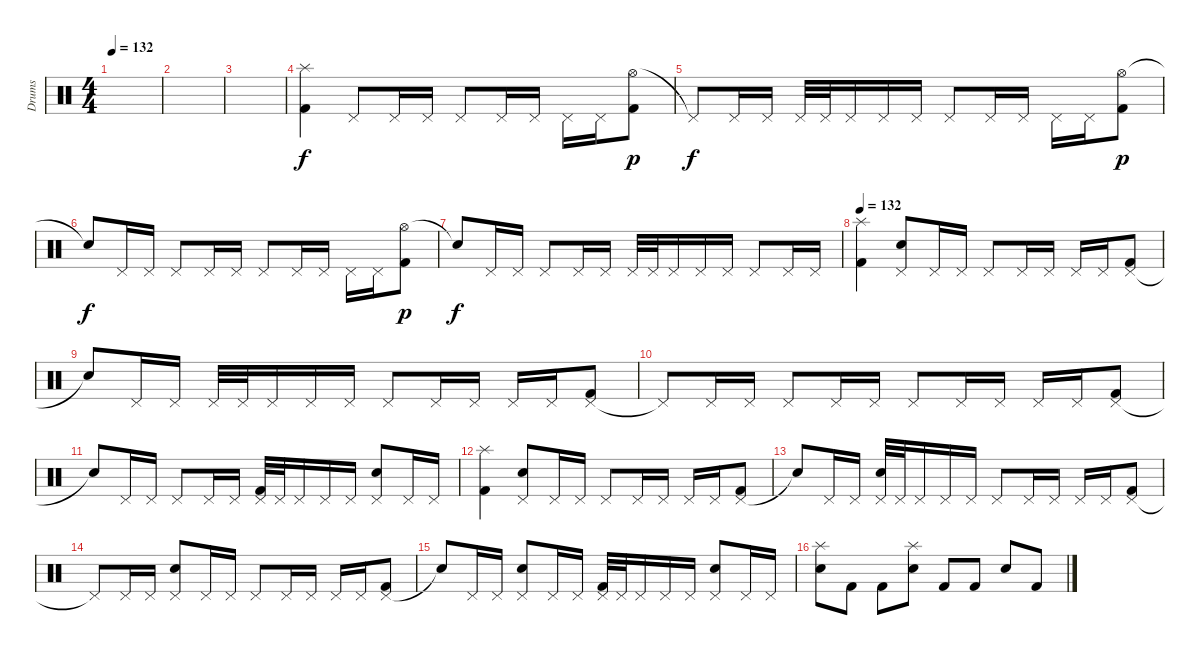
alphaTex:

\track ("Drums" "Drums") {instrument percussion}
\staff {score}
\articulation defaults
\ts (4 4)
\tempo 132
\clef neutral
\ks c
|
|
|
("Splash (hit)" "Kick (hit) 2").4{dy f} "Pedal Hi-Hat (hit)".8 "Pedal Hi-Hat (hit)".16 "Pedal Hi-Hat (hit)".16 "Pedal Hi-Hat (hit)".8 "Pedal Hi-Hat (hit)".16 "Pedal Hi-Hat (hit)".16 "Pedal Hi-Hat (hit)".16 "Pedal Hi-Hat (hit)".16 ("Hi-Hat (open)" "Kick (hit) 2").8{dy p} |
"Pedal Hi-Hat (hit)"{t}.8{dy f} "Pedal Hi-Hat (hit)".16 "Pedal Hi-Hat (hit)".16 "Pedal Hi-Hat (hit)".32 "Pedal Hi-Hat (hit)".32 "Pedal Hi-Hat (hit)".16 "Pedal Hi-Hat (hit)".16 "Pedal Hi-Hat (hit)".16 "Pedal Hi-Hat (hit)".8 "Pedal Hi-Hat (hit)".16 "Pedal Hi-Hat (hit)".16 "Pedal Hi-Hat (hit)".16 "Pedal Hi-Hat (hit)".16 ("Hi-Hat (open)" "Kick (hit) 2").8{dy p} |
"Snare (hit)"{t}.8{dy f} "Pedal Hi-Hat (hit)".16 "Pedal Hi-Hat (hit)".16 "Pedal Hi-Hat (hit)".8 "Pedal Hi-Hat (hit)".16 "Pedal Hi-Hat (hit)".16 "Pedal Hi-Hat (hit)".8 "Pedal Hi-Hat (hit)".16 "Pedal Hi-Hat (hit)".16 "Pedal Hi-Hat (hit)".16 "Pedal Hi-Hat (hit)".16 ("Hi-Hat (open)" "Kick (hit) 2").8{dy p} |
"Snare (hit)"{t}.8{dy f} "Pedal Hi-Hat (hit)".16 "Pedal Hi-Hat (hit)".16 "Pedal Hi-Hat (hit)".8 "Pedal Hi-Hat (hit)".16 "Pedal Hi-Hat (hit)".16 "Pedal Hi-Hat (hit)".32 "Pedal Hi-Hat (hit)".32 "Pedal Hi-Hat (hit)".16 "Pedal Hi-Hat (hit)".16 "Pedal Hi-Hat (hit)".16 "Pedal Hi-Hat (hit)".8 "Pedal Hi-Hat (hit)".16 "Pedal Hi-Hat (hit)".16 |
\tempo 132
("Splash (hit)" "Kick (hit) 2").4 ("Pedal Hi-Hat (hit)" "Snare (hit) 2").8 "Pedal Hi-Hat (hit)".16 "Pedal Hi-Hat (hit)".16 "Pedal Hi-Hat (hit)".8 "Pedal Hi-Hat (hit)".16 "Pedal Hi-Hat (hit)".16 "Pedal Hi-Hat (hit)".16 "Pedal Hi-Hat (hit)".16 ("Pedal Hi-Hat (hit)" "Kick (hit) 2").8 |
"Snare (hit)"{t}.8 "Pedal Hi-Hat (hit)".16 "Pedal Hi-Hat (hit)".16 "Pedal Hi-Hat (hit)".32 "Pedal Hi-Hat (hit)".32 "Pedal Hi-Hat (hit)".16 "Pedal Hi-Hat (hit)".16 "Pedal Hi-Hat (hit)".16 "Pedal Hi-Hat (hit)".8 "Pedal Hi-Hat (hit)".16 "Pedal Hi-Hat (hit)".16 "Pedal Hi-Hat (hit)".16 "Pedal Hi-Hat (hit)".16 ("Pedal Hi-Hat (hit)" "Kick (hit) 2").8 |
"Pedal Hi-Hat (hit)"{t}.8 "Pedal Hi-Hat (hit)".16 "Pedal Hi-Hat (hit)".16 "Pedal Hi-Hat (hit)".8 "Pedal Hi-Hat (hit)".16 "Pedal Hi-Hat (hit)".16 "Pedal Hi-Hat (hit)".8 "Pedal Hi-Hat (hit)".16 "Pedal Hi-Hat (hit)".16 "Pedal Hi-Hat (hit)".16 "Pedal Hi-Hat (hit)".16 ("Pedal Hi-Hat (hit)" "Kick (hit) 2").8 |
"Snare (hit)"{t}.8 "Pedal Hi-Hat (hit)".16 "Pedal Hi-Hat (hit)".16 "Pedal Hi-Hat (hit)".8 "Pedal Hi-Hat (hit)".16 "Pedal Hi-Hat (hit)".16 ("Pedal Hi-Hat (hit)" "Kick (hit) 2").32 "Pedal Hi-Hat (hit)".32 "Pedal Hi-Hat (hit)".16 "Pedal Hi-Hat (hit)".16 "Pedal Hi-Hat (hit)".16 ("Pedal Hi-Hat (hit)" "Snare (hit) 2").8 "Pedal Hi-Hat (hit)".16 "Pedal Hi-Hat (hit)".16 |
("Splash (hit)" "Kick (hit) 2").4 ("Pedal Hi-Hat (hit)" "Snare (hit) 2").8 "Pedal Hi-Hat (hit)".16 "Pedal Hi-Hat (hit)".16 "Pedal Hi-Hat (hit)".8 "Pedal Hi-Hat (hit)".16 "Pedal Hi-Hat (hit)".16 "Pedal Hi-Hat (hit)".16 "Pedal Hi-Hat (hit)".16 ("Pedal Hi-Hat (hit)" "Kick (hit) 2").8 |
"Snare (hit)"{t}.8 "Pedal Hi-Hat (hit)".16 "Pedal Hi-Hat (hit)".16 ("Pedal Hi-Hat (hit)" "Snare (hit) 2").32 "Pedal Hi-Hat (hit)".32 "Pedal Hi-Hat (hit)".16 "Pedal Hi-Hat (hit)".16 "Pedal Hi-Hat (hit)".16 "Pedal Hi-Hat (hit)".8 "Pedal Hi-Hat (hit)".16 "Pedal Hi-Hat (hit)".16 "Pedal Hi-Hat (hit)".16 "Pedal Hi-Hat (hit)".16 ("Pedal Hi-Hat (hit)" "Kick (hit) 2").8 |
"Pedal Hi-Hat (hit)"{t}.8 "Pedal Hi-Hat (hit)".16 "Pedal Hi-Hat (hit)".16 ("Pedal Hi-Hat (hit)" "Snare (hit) 2").8 "Pedal Hi-Hat (hit)".16 "Pedal Hi-Hat (hit)".16 "Pedal Hi-Hat (hit)".8 "Pedal Hi-Hat (hit)".16 "Pedal Hi-Hat (hit)".16 "Pedal Hi-Hat (hit)".16 "Pedal Hi-Hat (hit)".16 ("Pedal Hi-Hat (hit)" "Kick (hit) 2").8 |
"Snare (hit)"{t}.8 "Pedal Hi-Hat (hit)".16 "Pedal Hi-Hat (hit)".16 ("Pedal Hi-Hat (hit)" "Snare (hit) 2").8 "Pedal Hi-Hat (hit)".16 "Pedal Hi-Hat (hit)".16 ("Pedal Hi-Hat (hit)" "Kick (hit) 2").32 "Pedal Hi-Hat (hit)".32 "Pedal Hi-Hat (hit)".16 "Pedal Hi-Hat (hit)".16 "Pedal Hi-Hat (hit)".16 ("Pedal Hi-Hat (hit)" "Snare (hit) 2").8 "Pedal Hi-Hat (hit)".16 "Pedal Hi-Hat (hit)".16 |
("Snare (hit) 2" "Splash (hit)").8 "Kick (hit) 2".8 "Kick (hit) 2".8 ("Snare (hit) 2" "Splash (hit)").8 "Kick (hit) 2".8 "Kick (hit) 2".8 "Snare (hit) 2".8 "Kick (hit) 2".8
